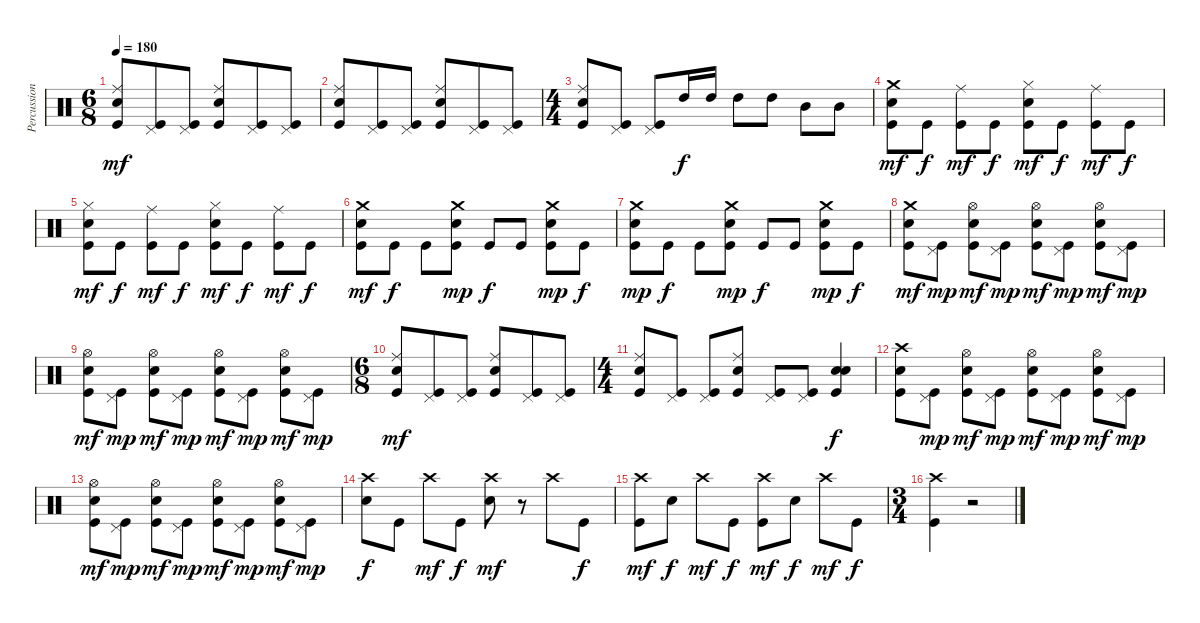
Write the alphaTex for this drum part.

\track ("Percussion" "Percussion") {instrument percussion}
\staff {score}
\articulation defaults
\ts (6 8)
\tempo 180
\clef neutral
\ks c
("Ride (middle)" "Snare (hit) 2" "Kick (hit)").8{dy mf} ("Pedal Hi-Hat (hit)" "Kick (hit)").8 ("Pedal Hi-Hat (hit)" "Kick (hit)").8 ("Ride (middle)" "Snare (hit) 2" "Kick (hit)").8 ("Pedal Hi-Hat (hit)" "Kick (hit)").8 ("Pedal Hi-Hat (hit)" "Kick (hit)").8 |
("Ride (middle)" "Snare (hit) 2" "Kick (hit)").8 ("Pedal Hi-Hat (hit)" "Kick (hit)").8 ("Pedal Hi-Hat (hit)" "Kick (hit)").8 ("Ride (middle)" "Snare (hit) 2" "Kick (hit)").8 ("Pedal Hi-Hat (hit)" "Kick (hit)").8 ("Pedal Hi-Hat (hit)" "Kick (hit)").8 |
\ts (4 4)
("Ride (middle)" "Snare (hit) 2" "Kick (hit)").8 ("Pedal Hi-Hat (hit)" "Kick (hit)").8 ("Pedal Hi-Hat (hit)" "Kick (hit)").8 "High Tom (hit)".16{dy f} "High Tom (hit)".16 "High Tom (hit)".8 "High Tom (hit)".8 "Mid Tom (hit)".8 "Mid Tom (hit)".8 |
("Crash medium (hit)" "Snare (hit) 2" "Kick (hit)").8{dy mf} "Kick (hit)".8{dy f} ("Ride (middle)" "Kick (hit)").8{dy mf} "Kick (hit)".8{dy f} ("Hi-Hat (closed)" "Snare (hit) 2" "Kick (hit)").8{dy mf} "Kick (hit)".8{dy f} ("Ride (middle)" "Kick (hit)").8{dy mf} "Kick (hit)".8{dy f} |
("Hi-Hat (closed)" "Snare (hit) 2" "Kick (hit)").8{dy mf} "Kick (hit)".8{dy f} ("Ride (middle)" "Kick (hit)").8{dy mf} "Kick (hit)".8{dy f} ("Hi-Hat (closed)" "Snare (hit) 2" "Kick (hit)").8{dy mf} "Kick (hit)".8{dy f} ("Ride (middle)" "Kick (hit)").8{dy mf} "Kick (hit)".8{dy f} |
("Crash medium (hit)" "Snare (hit) 2" "Kick (hit)").8{dy mf} "Kick (hit)".8{dy f} "Kick (hit)".8 ("Crash medium (hit)" "Snare (hit) 2" "Kick (hit)").8{dy mp} "Kick (hit)".8{dy f} "Kick (hit)".8 ("Crash medium (hit)" "Snare (hit) 2" "Kick (hit)").8{dy mp} "Kick (hit)".8{dy f} |
("Crash medium (hit)" "Snare (hit) 2" "Kick (hit)").8{dy mp} "Kick (hit)".8{dy f} "Kick (hit)".8 ("Crash medium (hit)" "Snare (hit) 2" "Kick (hit)").8{dy mp} "Kick (hit)".8{dy f} "Kick (hit)".8 ("Crash medium (hit)" "Snare (hit) 2" "Kick (hit)").8{dy mp} "Kick (hit)".8{dy f} |
("Crash medium (hit)" "Snare (hit) 2" "Kick (hit)").8{dy mf} ("Pedal Hi-Hat (hit)" "Kick (hit)").8{dy mp} ("Hi-Hat (open)" "Snare (hit) 2" "Kick (hit)").8{dy mf} ("Pedal Hi-Hat (hit)" "Kick (hit)").8{dy mp} ("Hi-Hat (open)" "Snare (hit) 2" "Kick (hit)").8{dy mf} ("Pedal Hi-Hat (hit)" "Kick (hit)").8{dy mp} ("Hi-Hat (open)" "Snare (hit) 2" "Kick (hit)").8{dy mf} ("Pedal Hi-Hat (hit)" "Kick (hit)").8{dy mp} |
("Hi-Hat (open)" "Snare (hit) 2" "Kick (hit)").8{dy mf} ("Pedal Hi-Hat (hit)" "Kick (hit)").8{dy mp} ("Hi-Hat (open)" "Snare (hit) 2" "Kick (hit)").8{dy mf} ("Pedal Hi-Hat (hit)" "Kick (hit)").8{dy mp} ("Hi-Hat (open)" "Snare (hit) 2" "Kick (hit)").8{dy mf} ("Pedal Hi-Hat (hit)" "Kick (hit)").8{dy mp} ("Hi-Hat (open)" "Snare (hit) 2" "Kick (hit)").8{dy mf} ("Pedal Hi-Hat (hit)" "Kick (hit)").8{dy mp} |
\ts (6 8)
("Ride (middle)" "Snare (hit) 2" "Kick (hit)").8{dy mf} ("Pedal Hi-Hat (hit)" "Kick (hit)").8 ("Pedal Hi-Hat (hit)" "Kick (hit)").8 ("Ride (middle)" "Snare (hit) 2" "Kick (hit)").8 ("Pedal Hi-Hat (hit)" "Kick (hit)").8 ("Pedal Hi-Hat (hit)" "Kick (hit)").8 |
\ts (4 4)
("Ride (middle)" "Snare (hit) 2" "Kick (hit)").8 ("Pedal Hi-Hat (hit)" "Kick (hit)").8 ("Pedal Hi-Hat (hit)" "Kick (hit)").8 ("Ride (middle)" "Snare (hit) 2" "Kick (hit)").8 ("Pedal Hi-Hat (hit)" "Kick (hit)").8 ("Pedal Hi-Hat (hit)" "Kick (hit)").8 ("Snare (hit) 2" "Snare (hit) 2" "Kick (hit)").4{dy f} |
("Crash high (hit)" "Snare (hit) 2" "Kick (hit)").8 ("Pedal Hi-Hat (hit)" "Kick (hit)").8{dy mp} ("Hi-Hat (open)" "Snare (hit) 2" "Kick (hit)").8{dy mf} ("Pedal Hi-Hat (hit)" "Kick (hit)").8{dy mp} ("Hi-Hat (open)" "Snare (hit) 2" "Kick (hit)").8{dy mf} ("Pedal Hi-Hat (hit)" "Kick (hit)").8{dy mp} ("Hi-Hat (open)" "Snare (hit) 2" "Kick (hit)").8{dy mf} ("Pedal Hi-Hat (hit)" "Kick (hit)").8{dy mp} |
("Hi-Hat (open)" "Snare (hit) 2" "Kick (hit)").8{dy mf} ("Pedal Hi-Hat (hit)" "Kick (hit)").8{dy mp} ("Hi-Hat (open)" "Snare (hit) 2" "Kick (hit)").8{dy mf} ("Pedal Hi-Hat (hit)" "Kick (hit)").8{dy mp} ("Hi-Hat (open)" "Snare (hit) 2" "Kick (hit)").8{dy mf} ("Pedal Hi-Hat (hit)" "Kick (hit)").8{dy mp} ("Hi-Hat (open)" "Snare (hit) 2" "Kick (hit)").8{dy mf} ("Pedal Hi-Hat (hit)" "Kick (hit)").8{dy mp} |
("Crash high (hit)" "Snare (hit) 2").8{dy f} "Kick (hit)".8 "Crash high (hit)".8{dy mf} "Kick (hit)".8{dy f} ("Crash high (hit)" "Snare (hit) 2").8{dy mf} r.8 "Crash high (hit)".8 "Kick (hit)".8{dy f} |
("Crash high (hit)" "Kick (hit)").8{dy mf} "Snare (hit) 2".8{dy f} "Crash high (hit)".8{dy mf} "Kick (hit)".8{dy f} ("Crash high (hit)" "Kick (hit)").8{dy mf} "Snare (hit) 2".8{dy f} "Crash high (hit)".8{dy mf} "Kick (hit)".8{dy f} |
\ts (3 4)
("Crash high (hit)" "Kick (hit)").4 r.2
